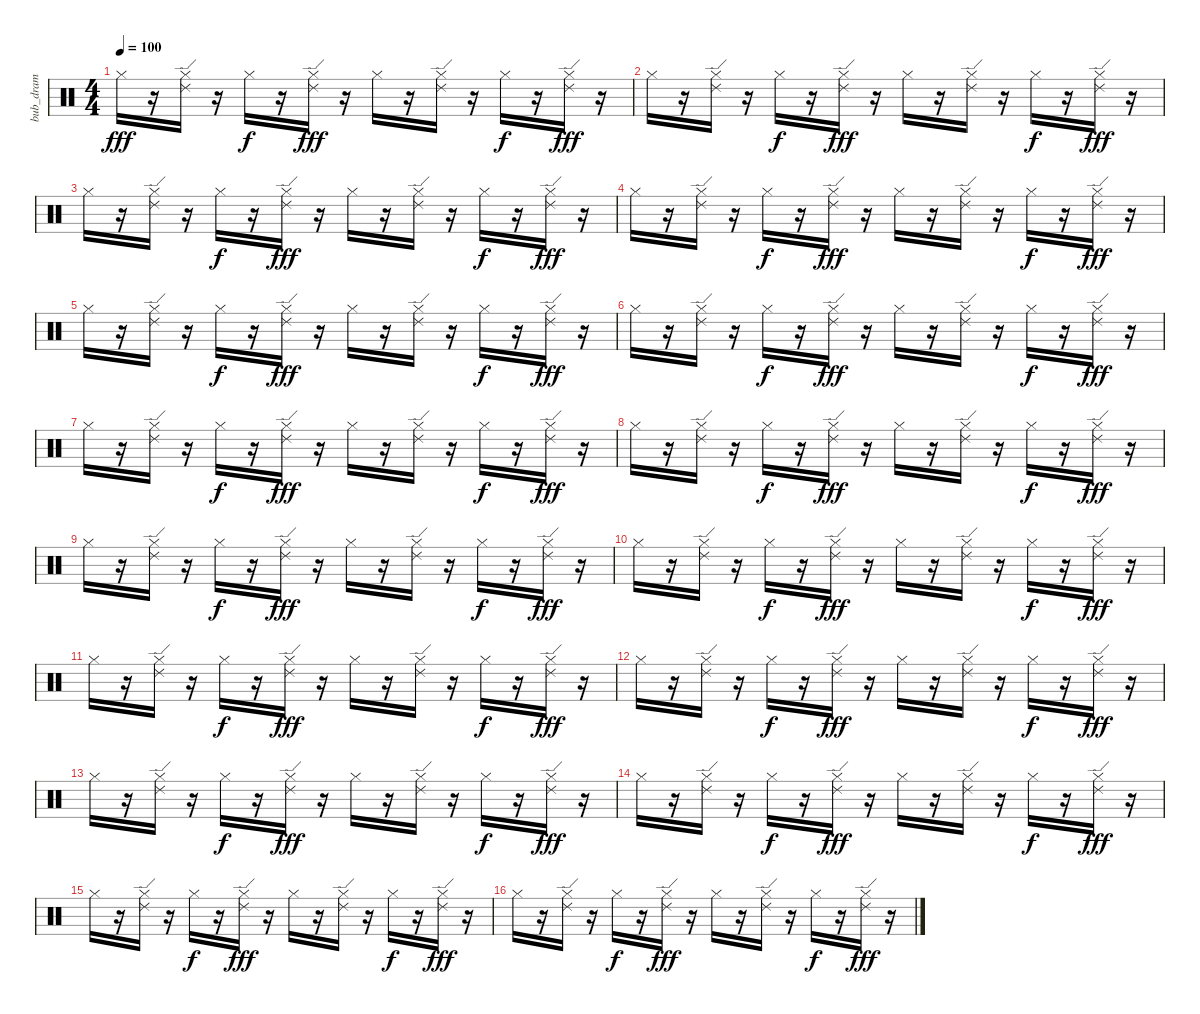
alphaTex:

\track ("bub_dram" "bub_dram") {instrument percussion}
\staff {score}
\articulation defaults
\ts (4 4)
\tempo 100
\clef neutral
\ks c "Hi-Hat (closed)".16{dy fff}
r.16 ("Ride (edge) 2" "Hi-Hat (closed)").16 r.16 "Hi-Hat (closed)".16{dy f} r.16 ("Ride (edge) 2" "Hi-Hat (closed)").16{dy fff} r.16 "Hi-Hat (closed)".16 r.16 ("Ride (edge) 2" "Hi-Hat (closed)").16 r.16 "Hi-Hat (closed)".16{dy f} r.16 ("Ride (edge) 2" "Hi-Hat (closed)").16{dy fff} r.16 |
"Hi-Hat (closed)".16 r.16 ("Hi-Hat (closed)" "Ride (edge) 2").16 r.16 "Hi-Hat (closed)".16{dy f} r.16 ("Hi-Hat (closed)" "Ride (edge) 2").16{dy fff} r.16 "Hi-Hat (closed)".16 r.16 ("Hi-Hat (closed)" "Ride (edge) 2").16 r.16 "Hi-Hat (closed)".16{dy f} r.16 ("Hi-Hat (closed)" "Ride (edge) 2").16{dy fff} r.16 |
"Hi-Hat (closed)".16 r.16 ("Hi-Hat (closed)" "Ride (edge) 2").16 r.16 "Hi-Hat (closed)".16{dy f} r.16 ("Hi-Hat (closed)" "Ride (edge) 2").16{dy fff} r.16 "Hi-Hat (closed)".16 r.16 ("Hi-Hat (closed)" "Ride (edge) 2").16 r.16 "Hi-Hat (closed)".16{dy f} r.16 ("Hi-Hat (closed)" "Ride (edge) 2").16{dy fff} r.16 |
"Hi-Hat (closed)".16 r.16 ("Hi-Hat (closed)" "Ride (edge) 2").16 r.16 "Hi-Hat (closed)".16{dy f} r.16 ("Hi-Hat (closed)" "Ride (edge) 2").16{dy fff} r.16 "Hi-Hat (closed)".16 r.16 ("Hi-Hat (closed)" "Ride (edge) 2").16 r.16 "Hi-Hat (closed)".16{dy f} r.16 ("Hi-Hat (closed)" "Ride (edge) 2").16{dy fff} r.16 |
"Hi-Hat (closed)".16 r.16 ("Hi-Hat (closed)" "Ride (edge) 2").16 r.16 "Hi-Hat (closed)".16{dy f} r.16 ("Hi-Hat (closed)" "Ride (edge) 2").16{dy fff} r.16 "Hi-Hat (closed)".16 r.16 ("Hi-Hat (closed)" "Ride (edge) 2").16 r.16 "Hi-Hat (closed)".16{dy f} r.16 ("Hi-Hat (closed)" "Ride (edge) 2").16{dy fff} r.16 |
"Hi-Hat (closed)".16 r.16 ("Ride (edge) 2" "Hi-Hat (closed)").16 r.16 "Hi-Hat (closed)".16{dy f} r.16 ("Ride (edge) 2" "Hi-Hat (closed)").16{dy fff} r.16 "Hi-Hat (closed)".16 r.16 ("Ride (edge) 2" "Hi-Hat (closed)").16 r.16 "Hi-Hat (closed)".16{dy f} r.16 ("Ride (edge) 2" "Hi-Hat (closed)").16{dy fff} r.16 |
"Hi-Hat (closed)".16 r.16 ("Ride (edge) 2" "Hi-Hat (closed)").16 r.16 "Hi-Hat (closed)".16{dy f} r.16 ("Ride (edge) 2" "Hi-Hat (closed)").16{dy fff} r.16 "Hi-Hat (closed)".16 r.16 ("Ride (edge) 2" "Hi-Hat (closed)").16 r.16 "Hi-Hat (closed)".16{dy f} r.16 ("Ride (edge) 2" "Hi-Hat (closed)").16{dy fff} r.16 |
"Hi-Hat (closed)".16 r.16 ("Ride (edge) 2" "Hi-Hat (closed)").16 r.16 "Hi-Hat (closed)".16{dy f} r.16 ("Ride (edge) 2" "Hi-Hat (closed)").16{dy fff} r.16 "Hi-Hat (closed)".16 r.16 ("Ride (edge) 2" "Hi-Hat (closed)").16 r.16 "Hi-Hat (closed)".16{dy f} r.16 ("Ride (edge) 2" "Hi-Hat (closed)").16{dy fff} r.16 |
"Hi-Hat (closed)".16 r.16 ("Ride (edge) 2" "Hi-Hat (closed)").16 r.16 "Hi-Hat (closed)".16{dy f} r.16 ("Ride (edge) 2" "Hi-Hat (closed)").16{dy fff} r.16 "Hi-Hat (closed)".16 r.16 ("Ride (edge) 2" "Hi-Hat (closed)").16 r.16 "Hi-Hat (closed)".16{dy f} r.16 ("Ride (edge) 2" "Hi-Hat (closed)").16{dy fff} r.16 |
"Hi-Hat (closed)".16 r.16 ("Ride (edge) 2" "Hi-Hat (closed)").16 r.16 "Hi-Hat (closed)".16{dy f} r.16 ("Ride (edge) 2" "Hi-Hat (closed)").16{dy fff} r.16 "Hi-Hat (closed)".16 r.16 ("Ride (edge) 2" "Hi-Hat (closed)").16 r.16 "Hi-Hat (closed)".16{dy f} r.16 ("Ride (edge) 2" "Hi-Hat (closed)").16{dy fff} r.16 |
"Hi-Hat (closed)".16 r.16 ("Ride (edge) 2" "Hi-Hat (closed)").16 r.16 "Hi-Hat (closed)".16{dy f} r.16 ("Ride (edge) 2" "Hi-Hat (closed)").16{dy fff} r.16 "Hi-Hat (closed)".16 r.16 ("Ride (edge) 2" "Hi-Hat (closed)").16 r.16 "Hi-Hat (closed)".16{dy f} r.16 ("Ride (edge) 2" "Hi-Hat (closed)").16{dy fff} r.16 |
"Hi-Hat (closed)".16 r.16 ("Hi-Hat (closed)" "Ride (edge) 2").16 r.16 "Hi-Hat (closed)".16{dy f} r.16 ("Hi-Hat (closed)" "Ride (edge) 2").16{dy fff} r.16 "Hi-Hat (closed)".16 r.16 ("Hi-Hat (closed)" "Ride (edge) 2").16 r.16 "Hi-Hat (closed)".16{dy f} r.16 ("Hi-Hat (closed)" "Ride (edge) 2").16{dy fff} r.16 |
"Hi-Hat (closed)".16 r.16 ("Hi-Hat (closed)" "Ride (edge) 2").16 r.16 "Hi-Hat (closed)".16{dy f} r.16 ("Hi-Hat (closed)" "Ride (edge) 2").16{dy fff} r.16 "Hi-Hat (closed)".16 r.16 ("Hi-Hat (closed)" "Ride (edge) 2").16 r.16 "Hi-Hat (closed)".16{dy f} r.16 ("Hi-Hat (closed)" "Ride (edge) 2").16{dy fff} r.16 |
"Hi-Hat (closed)".16 r.16 ("Hi-Hat (closed)" "Ride (edge) 2").16 r.16 "Hi-Hat (closed)".16{dy f} r.16 ("Hi-Hat (closed)" "Ride (edge) 2").16{dy fff} r.16 "Hi-Hat (closed)".16 r.16 ("Hi-Hat (closed)" "Ride (edge) 2").16 r.16 "Hi-Hat (closed)".16{dy f} r.16 ("Hi-Hat (closed)" "Ride (edge) 2").16{dy fff} r.16 |
"Hi-Hat (closed)".16 r.16 ("Ride (edge) 2" "Hi-Hat (closed)").16 r.16 "Hi-Hat (closed)".16{dy f} r.16 ("Ride (edge) 2" "Hi-Hat (closed)").16{dy fff} r.16 "Hi-Hat (closed)".16 r.16 ("Ride (edge) 2" "Hi-Hat (closed)").16 r.16 "Hi-Hat (closed)".16{dy f} r.16 ("Ride (edge) 2" "Hi-Hat (closed)").16{dy fff} r.16 |
"Hi-Hat (closed)".16 r.16 ("Ride (edge) 2" "Hi-Hat (closed)").16 r.16 "Hi-Hat (closed)".16{dy f} r.16 ("Ride (edge) 2" "Hi-Hat (closed)").16{dy fff} r.16 "Hi-Hat (closed)".16 r.16 ("Ride (edge) 2" "Hi-Hat (closed)").16 r.16 "Hi-Hat (closed)".16{dy f} r.16 ("Ride (edge) 2" "Hi-Hat (closed)").16{dy fff} r.16
